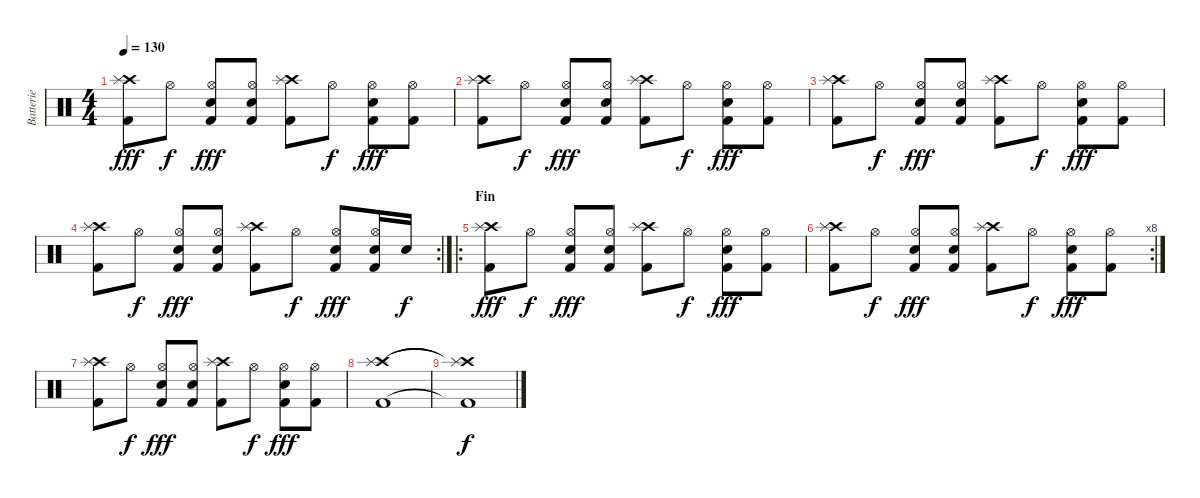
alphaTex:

\track ("Batterie" "Batterie") {instrument percussion}
\staff {score}
\articulation defaults
\ts (4 4)
\tempo 130
\clef neutral
\ks c
("Crash high (hit)" "Kick (hit) 2" "Splash (hit)").8{dy fff} "Hi-Hat (open)".8{dy f} ("Hi-Hat (open)" "Kick (hit) 2" "Electric Snare (hit)").8{dy fff} ("Hi-Hat (open)" "Kick (hit) 2" "Electric Snare (hit)").8 ("Crash high (hit)" "Kick (hit) 2" "Splash (hit)").8 "Hi-Hat (open)".8{dy f} ("Hi-Hat (open)" "Kick (hit) 2" "Electric Snare (hit)").8{dy fff} ("Hi-Hat (open)" "Kick (hit) 2").8 |
("Crash high (hit)" "Kick (hit) 2" "Splash (hit)").8 "Hi-Hat (open)".8{dy f} ("Hi-Hat (open)" "Kick (hit) 2" "Electric Snare (hit)").8{dy fff} ("Hi-Hat (open)" "Kick (hit) 2" "Electric Snare (hit)").8 ("Crash high (hit)" "Kick (hit) 2" "Splash (hit)").8 "Hi-Hat (open)".8{dy f} ("Hi-Hat (open)" "Kick (hit) 2" "Electric Snare (hit)").8{dy fff} ("Hi-Hat (open)" "Kick (hit) 2").8 |
("Crash high (hit)" "Kick (hit) 2" "Splash (hit)").8 "Hi-Hat (open)".8{dy f} ("Hi-Hat (open)" "Kick (hit) 2" "Electric Snare (hit)").8{dy fff} ("Hi-Hat (open)" "Kick (hit) 2" "Electric Snare (hit)").8 ("Crash high (hit)" "Kick (hit) 2" "Splash (hit)").8 "Hi-Hat (open)".8{dy f} ("Hi-Hat (open)" "Kick (hit) 2" "Electric Snare (hit)").8{dy fff} ("Hi-Hat (open)" "Kick (hit) 2").8 |
\rc 2
("Crash high (hit)" "Kick (hit) 2" "Splash (hit)").8 "Hi-Hat (open)".8{dy f} ("Hi-Hat (open)" "Kick (hit) 2" "Electric Snare (hit)").8{dy fff} ("Hi-Hat (open)" "Kick (hit) 2" "Electric Snare (hit)").8 ("Crash high (hit)" "Kick (hit) 2" "Splash (hit)").8 "Hi-Hat (open)".8{dy f} ("Hi-Hat (open)" "Kick (hit) 2" "Electric Snare (hit)").8{dy fff} ("Hi-Hat (open)" "Kick (hit) 2" "Electric Snare (hit)").16 "Electric Snare (hit)".16{dy f} |
\ro
\section ("" "Fin")
("Crash high (hit)" "Kick (hit) 2" "Splash (hit)").8{dy fff} "Hi-Hat (open)".8{dy f} ("Hi-Hat (open)" "Kick (hit) 2" "Electric Snare (hit)").8{dy fff} ("Hi-Hat (open)" "Kick (hit) 2" "Electric Snare (hit)").8 ("Crash high (hit)" "Kick (hit) 2" "Splash (hit)").8 "Hi-Hat (open)".8{dy f} ("Hi-Hat (open)" "Kick (hit) 2" "Electric Snare (hit)").8{dy fff} ("Hi-Hat (open)" "Kick (hit) 2").8 |
\rc 8
("Crash high (hit)" "Kick (hit) 2" "Splash (hit)").8 "Hi-Hat (open)".8{dy f} ("Hi-Hat (open)" "Kick (hit) 2" "Electric Snare (hit)").8{dy fff} ("Hi-Hat (open)" "Kick (hit) 2" "Electric Snare (hit)").8 ("Crash high (hit)" "Kick (hit) 2" "Splash (hit)").8 "Hi-Hat (open)".8{dy f} ("Hi-Hat (open)" "Kick (hit) 2" "Electric Snare (hit)").8{dy fff} ("Hi-Hat (open)" "Kick (hit) 2").8 |
("Crash high (hit)" "Kick (hit) 2" "Splash (hit)").8 "Hi-Hat (open)".8{dy f} ("Hi-Hat (open)" "Kick (hit) 2" "Electric Snare (hit)").8{dy fff} ("Hi-Hat (open)" "Kick (hit) 2" "Electric Snare (hit)").8 ("Crash high (hit)" "Kick (hit) 2" "Splash (hit)").8 "Hi-Hat (open)".8{dy f} ("Hi-Hat (open)" "Kick (hit) 2" "Electric Snare (hit)").8{dy fff} ("Hi-Hat (open)" "Kick (hit) 2").8 |
("Crash high (hit)" "Kick (hit) 2" "Splash (hit)").1 |
("Crash high (hit)"{t} "Kick (hit) 2"{t} "Splash (hit)"{t}).1{dy f}
